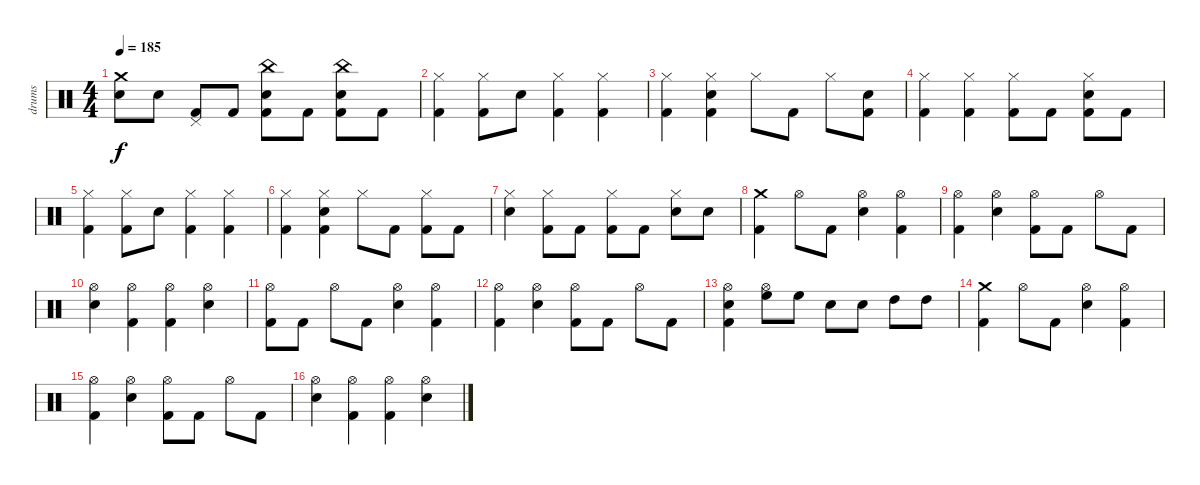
\track ("drums" "drums") {instrument percussion}
\staff {score}
\articulation defaults
\ts (4 4)
\tempo 185
\clef neutral
\ks c
("Crash medium (hit)" "Electric Snare (hit)").8{dy f} "Electric Snare (hit)".8 ("Pedal Hi-Hat (hit)" "Kick (hit) 2").8 "Kick (hit) 2".8 ("China (hit)" "Electric Snare (hit)" "Kick (hit) 2").8 "Kick (hit) 2".8 ("China (hit)" "Electric Snare (hit)" "Kick (hit) 2").8 "Kick (hit) 2".8 |
("Hi-Hat (closed)" "Kick (hit) 2").4 ("Hi-Hat (closed)" "Kick (hit) 2").8 "Electric Snare (hit)".8 ("Hi-Hat (closed)" "Kick (hit) 2").4 ("Hi-Hat (closed)" "Kick (hit) 2").4 |
("Hi-Hat (closed)" "Kick (hit) 2").4 ("Hi-Hat (closed)" "Electric Snare (hit)" "Kick (hit) 2").4 "Hi-Hat (closed)".8 "Kick (hit) 2".8 "Hi-Hat (closed)".8 ("Electric Snare (hit)" "Kick (hit) 2").8 |
("Hi-Hat (closed)" "Kick (hit) 2").4 ("Hi-Hat (closed)" "Kick (hit) 2").4 ("Hi-Hat (closed)" "Kick (hit) 2").8 "Kick (hit) 2".8 ("Hi-Hat (closed)" "Electric Snare (hit)" "Kick (hit) 2").8 "Kick (hit) 2".8 |
("Hi-Hat (closed)" "Kick (hit) 2").4 ("Hi-Hat (closed)" "Kick (hit) 2").8 "Electric Snare (hit)".8 ("Hi-Hat (closed)" "Kick (hit) 2").4 ("Hi-Hat (closed)" "Kick (hit) 2").4 |
("Hi-Hat (closed)" "Kick (hit) 2").4 ("Hi-Hat (closed)" "Electric Snare (hit)" "Kick (hit) 2").4 "Hi-Hat (closed)".8 "Kick (hit) 2".8 ("Hi-Hat (closed)" "Kick (hit) 2").8 "Kick (hit) 2".8 |
("Hi-Hat (closed)" "Electric Snare (hit)").4 ("Hi-Hat (closed)" "Kick (hit) 2").8 "Kick (hit) 2".8 ("Hi-Hat (closed)" "Kick (hit) 2").8 "Kick (hit) 2".8 ("Hi-Hat (closed)" "Electric Snare (hit)").8 "Electric Snare (hit)".8 |
("Crash medium (hit)" "Kick (hit) 2").4 "Hi-Hat (open)".8 "Kick (hit) 2".8 ("Hi-Hat (open)" "Electric Snare (hit)").4 ("Hi-Hat (open)" "Kick (hit) 2").4 |
("Hi-Hat (open)" "Kick (hit) 2").4 ("Hi-Hat (open)" "Electric Snare (hit)").4 ("Hi-Hat (open)" "Kick (hit) 2").8 "Kick (hit) 2".8 "Hi-Hat (open)".8 "Kick (hit) 2".8 |
("Hi-Hat (open)" "Electric Snare (hit)").4 ("Hi-Hat (open)" "Kick (hit) 2").4 ("Hi-Hat (open)" "Kick (hit) 2").4 ("Hi-Hat (open)" "Electric Snare (hit)").4 |
("Hi-Hat (open)" "Kick (hit) 2").8 "Kick (hit) 2".8 "Hi-Hat (open)".8 "Kick (hit) 2".8 ("Hi-Hat (open)" "Electric Snare (hit)").4 ("Hi-Hat (open)" "Kick (hit) 2").4 |
("Hi-Hat (open)" "Kick (hit) 2").4 ("Hi-Hat (open)" "Electric Snare (hit)").4 ("Hi-Hat (open)" "Kick (hit) 2").8 "Kick (hit) 2".8 "Hi-Hat (open)".8 "Kick (hit) 2".8 |
("Hi-Hat (open)" "Electric Snare (hit)" "Kick (hit) 2").4 ("Hi-Hat (open)" "High Floor Tom (hit)").8 "High Floor Tom (hit)".8 "Electric Snare (hit)".8 "Electric Snare (hit)".8 "High Tom (hit)".8 "High Tom (hit)".8 |
("Crash medium (hit)" "Kick (hit) 2").4 "Hi-Hat (open)".8 "Kick (hit) 2".8 ("Hi-Hat (open)" "Electric Snare (hit)").4 ("Hi-Hat (open)" "Kick (hit) 2").4 |
("Hi-Hat (open)" "Kick (hit) 2").4 ("Hi-Hat (open)" "Electric Snare (hit)").4 ("Hi-Hat (open)" "Kick (hit) 2").8 "Kick (hit) 2".8 "Hi-Hat (open)".8 "Kick (hit) 2".8 |
("Hi-Hat (open)" "Electric Snare (hit)").4 ("Hi-Hat (open)" "Kick (hit) 2").4 ("Hi-Hat (open)" "Kick (hit) 2").4 ("Hi-Hat (open)" "Electric Snare (hit)").4
